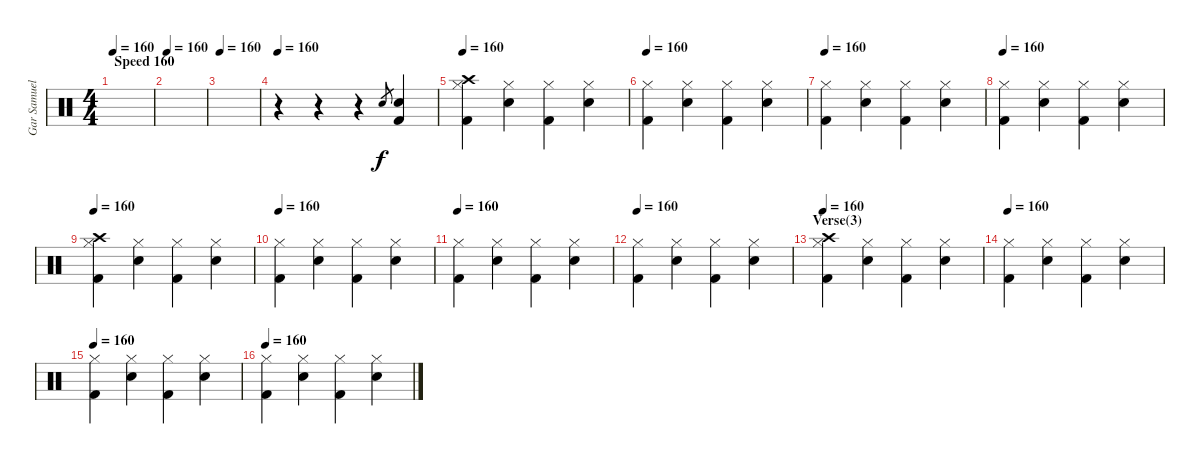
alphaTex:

\track ("Gar Samuelson (Drums)" "Gar Samuel") {instrument percussion}
\staff {score}
\articulation defaults
\ts (4 4)
\section ("" "Speed 160")
\tempo 160
\clef neutral
\ks c
|
\tempo 160
|
\tempo 160
|
\tempo 160
r.4 r.4 r.4 "Snare (hit) 2".8{gr} ("Electric Snare (hit)" "Kick (hit) 2").4 |
\tempo 160
("Crash high (hit)" "Hi-Hat (closed)" "Kick (hit) 2").4 ("Electric Snare (hit)" "Hi-Hat (closed)").4 ("Hi-Hat (closed)" "Kick (hit) 2").4 ("Electric Snare (hit)" "Hi-Hat (closed)").4 |
\tempo 160
("Hi-Hat (closed)" "Kick (hit) 2").4 ("Electric Snare (hit)" "Hi-Hat (closed)").4 ("Hi-Hat (closed)" "Kick (hit) 2").4 ("Electric Snare (hit)" "Hi-Hat (closed)").4 |
\tempo 160
("Hi-Hat (closed)" "Kick (hit) 2").4 ("Electric Snare (hit)" "Hi-Hat (closed)").4 ("Hi-Hat (closed)" "Kick (hit) 2").4 ("Electric Snare (hit)" "Hi-Hat (closed)").4 |
\tempo 160
("Hi-Hat (closed)" "Kick (hit) 2").4 ("Electric Snare (hit)" "Hi-Hat (closed)").4 ("Hi-Hat (closed)" "Kick (hit) 2").4 ("Electric Snare (hit)" "Hi-Hat (closed)").4 |
\tempo 160
("Crash high (hit)" "Hi-Hat (closed)" "Kick (hit) 2").4 ("Electric Snare (hit)" "Hi-Hat (closed)").4 ("Hi-Hat (closed)" "Kick (hit) 2").4 ("Electric Snare (hit)" "Hi-Hat (closed)").4 |
\tempo 160
("Hi-Hat (closed)" "Kick (hit) 2").4 ("Electric Snare (hit)" "Hi-Hat (closed)").4 ("Hi-Hat (closed)" "Kick (hit) 2").4 ("Electric Snare (hit)" "Hi-Hat (closed)").4 |
\tempo 160
("Hi-Hat (closed)" "Kick (hit) 2").4 ("Electric Snare (hit)" "Hi-Hat (closed)").4 ("Hi-Hat (closed)" "Kick (hit) 2").4 ("Electric Snare (hit)" "Hi-Hat (closed)").4 |
\tempo 160
("Hi-Hat (closed)" "Kick (hit) 2").4 ("Electric Snare (hit)" "Hi-Hat (closed)").4 ("Hi-Hat (closed)" "Kick (hit) 2").4 ("Electric Snare (hit)" "Hi-Hat (closed)").4 |
\section ("" "Verse(3)")
\tempo 160
("Crash high (hit)" "Hi-Hat (closed)" "Kick (hit) 2").4 ("Electric Snare (hit)" "Hi-Hat (closed)").4 ("Hi-Hat (closed)" "Kick (hit) 2").4 ("Electric Snare (hit)" "Hi-Hat (closed)").4 |
\tempo 160
("Hi-Hat (closed)" "Kick (hit) 2").4 ("Electric Snare (hit)" "Hi-Hat (closed)").4 ("Hi-Hat (closed)" "Kick (hit) 2").4 ("Electric Snare (hit)" "Hi-Hat (closed)").4 |
\tempo 160
("Hi-Hat (closed)" "Kick (hit) 2").4 ("Electric Snare (hit)" "Hi-Hat (closed)").4 ("Hi-Hat (closed)" "Kick (hit) 2").4 ("Electric Snare (hit)" "Hi-Hat (closed)").4 |
\tempo 160
("Hi-Hat (closed)" "Kick (hit) 2").4 ("Electric Snare (hit)" "Hi-Hat (closed)").4 ("Hi-Hat (closed)" "Kick (hit) 2").4 ("Electric Snare (hit)" "Hi-Hat (closed)").4
